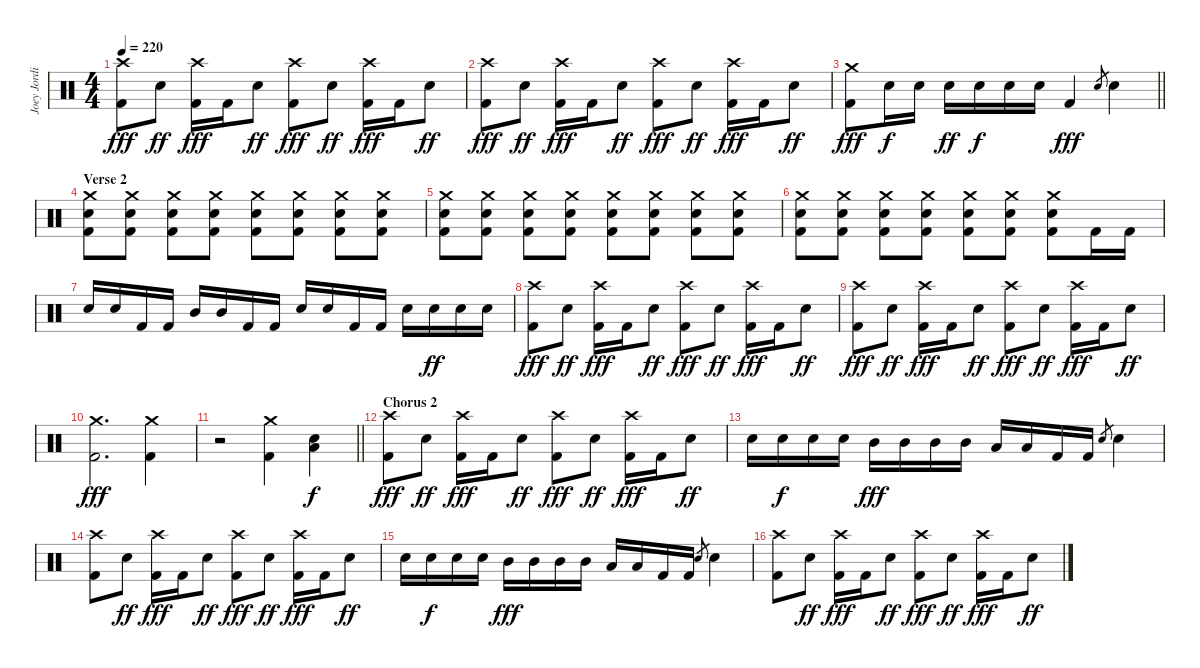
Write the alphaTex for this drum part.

\track ("Joey Jordison" "Joey Jordi") {instrument percussion}
\staff {score}
\articulation defaults
\ts (4 4)
\tempo 220
\clef neutral
\ks c
("Crash high (hit)" "Kick (hit) 2").8{dy fff} "Electric Snare (hit)".8{dy ff} ("Crash high (hit)" "Kick (hit) 2").16{dy fff} "Kick (hit) 2".16 "Electric Snare (hit)".8{dy ff} ("Crash high (hit)" "Kick (hit) 2").8{dy fff} "Electric Snare (hit)".8{dy ff} ("Crash high (hit)" "Kick (hit) 2").16{dy fff} "Kick (hit) 2".16 "Electric Snare (hit)".8{dy ff} |
("Crash high (hit)" "Kick (hit) 2").8{dy fff} "Electric Snare (hit)".8{dy ff} ("Crash high (hit)" "Kick (hit) 2").16{dy fff} "Kick (hit) 2".16 "Electric Snare (hit)".8{dy ff} ("Crash high (hit)" "Kick (hit) 2").8{dy fff} "Electric Snare (hit)".8{dy ff} ("Crash high (hit)" "Kick (hit) 2").16{dy fff} "Kick (hit) 2".16 "Electric Snare (hit)".8{dy ff} |
\barLineRight lightlight
("Crash medium (hit)" "Kick (hit) 2").8{dy fff} "Electric Snare (hit)".16{dy f} "Electric Snare (hit)".16 "Electric Snare (hit)".16{dy ff} "Electric Snare (hit)".16{dy f} "Electric Snare (hit)".16 "Electric Snare (hit)".16 "Kick (hit) 2".4{dy fff} "Electric Snare (hit)".8{gr} "Electric Snare (hit)".4 |
\section ("" "Verse 2")
("Crash medium (hit)" "Electric Snare (hit)" "Kick (hit) 2").8 ("Crash medium (hit)" "Electric Snare (hit)" "Kick (hit) 2").8 ("Crash medium (hit)" "Electric Snare (hit)" "Kick (hit) 2").8 ("Crash medium (hit)" "Electric Snare (hit)" "Kick (hit) 2").8 ("Crash medium (hit)" "Electric Snare (hit)" "Kick (hit) 2").8 ("Crash medium (hit)" "Electric Snare (hit)" "Kick (hit) 2").8 ("Crash medium (hit)" "Electric Snare (hit)" "Kick (hit) 2").8 ("Crash medium (hit)" "Electric Snare (hit)" "Kick (hit) 2").8 |
("Crash medium (hit)" "Electric Snare (hit)" "Kick (hit) 2").8 ("Crash medium (hit)" "Electric Snare (hit)" "Kick (hit) 2").8 ("Crash medium (hit)" "Electric Snare (hit)" "Kick (hit) 2").8 ("Crash medium (hit)" "Electric Snare (hit)" "Kick (hit) 2").8 ("Crash medium (hit)" "Electric Snare (hit)" "Kick (hit) 2").8 ("Crash medium (hit)" "Electric Snare (hit)" "Kick (hit) 2").8 ("Crash medium (hit)" "Electric Snare (hit)" "Kick (hit) 2").8 ("Crash medium (hit)" "Electric Snare (hit)" "Kick (hit) 2").8 |
("Crash medium (hit)" "Electric Snare (hit)" "Kick (hit) 2").8 ("Crash medium (hit)" "Electric Snare (hit)" "Kick (hit) 2").8 ("Crash medium (hit)" "Electric Snare (hit)" "Kick (hit) 2").8 ("Crash medium (hit)" "Electric Snare (hit)" "Kick (hit) 2").8 ("Crash medium (hit)" "Electric Snare (hit)" "Kick (hit) 2").8 ("Crash medium (hit)" "Electric Snare (hit)" "Kick (hit) 2").8 ("Crash medium (hit)" "Electric Snare (hit)" "Kick (hit) 2").8 "Kick (hit) 2".16 "Kick (hit) 2".16 |
"Electric Snare (hit)".16 "Electric Snare (hit)".16 "Kick (hit) 2".16 "Kick (hit) 2".16 "Mid Tom (hit)".16 "Mid Tom (hit)".16 "Kick (hit) 2".16 "Kick (hit) 2".16 "Electric Snare (hit)".16 "Electric Snare (hit)".16 "Kick (hit) 2".16 "Kick (hit) 2".16 "Electric Snare (hit)".16 "Electric Snare (hit)".16{dy ff} "Electric Snare (hit)".16 "Electric Snare (hit)".16 |
("Crash high (hit)" "Kick (hit) 2").8{dy fff} "Electric Snare (hit)".8{dy ff} ("Crash high (hit)" "Kick (hit) 2").16{dy fff} "Kick (hit) 2".16 "Electric Snare (hit)".8{dy ff} ("Crash high (hit)" "Kick (hit) 2").8{dy fff} "Electric Snare (hit)".8{dy ff} ("Crash high (hit)" "Kick (hit) 2").16{dy fff} "Kick (hit) 2".16 "Electric Snare (hit)".8{dy ff} |
("Crash high (hit)" "Kick (hit) 2").8{dy fff} "Electric Snare (hit)".8{dy ff} ("Crash high (hit)" "Kick (hit) 2").16{dy fff} "Kick (hit) 2".16 "Electric Snare (hit)".8{dy ff} ("Crash high (hit)" "Kick (hit) 2").8{dy fff} "Electric Snare (hit)".8{dy ff} ("Crash high (hit)" "Kick (hit) 2").16{dy fff} "Kick (hit) 2".16 "Electric Snare (hit)".8{dy ff} |
("Crash medium (hit)" "Kick (hit) 2").2{d dy fff} ("Crash medium (hit)" "Kick (hit) 2").4 |
\barLineRight lightlight
r.2 ("Crash medium (hit)" "Kick (hit) 2").4 ("Electric Snare (hit)" "Low Floor Tom (hit)").4{dy f} |
\section ("" "Chorus 2")
("Crash high (hit)" "Kick (hit) 2").8{dy fff} "Electric Snare (hit)".8{dy ff} ("Crash high (hit)" "Kick (hit) 2").16{dy fff} "Kick (hit) 2".16 "Electric Snare (hit)".8{dy ff} ("Crash high (hit)" "Kick (hit) 2").8{dy fff} "Electric Snare (hit)".8{dy ff} ("Crash high (hit)" "Kick (hit) 2").16{dy fff} "Kick (hit) 2".16 "Electric Snare (hit)".8{dy ff} |
"Electric Snare (hit)".16 "Electric Snare (hit)".16{dy f} "Electric Snare (hit)".16 "Electric Snare (hit)".16 "Mid Tom (hit)".16{dy fff} "Mid Tom (hit)".16 "Mid Tom (hit)".16 "Mid Tom (hit)".16 "Low Tom (hit)".16 "Low Tom (hit)".16 "Kick (hit) 2".16 "Kick (hit) 2".16 "Electric Snare (hit)".8{gr} "Electric Snare (hit)".4 |
("Crash high (hit)" "Kick (hit) 2").8 "Electric Snare (hit)".8{dy ff} ("Crash high (hit)" "Kick (hit) 2").16{dy fff} "Kick (hit) 2".16 "Electric Snare (hit)".8{dy ff} ("Crash high (hit)" "Kick (hit) 2").8{dy fff} "Electric Snare (hit)".8{dy ff} ("Crash high (hit)" "Kick (hit) 2").16{dy fff} "Kick (hit) 2".16 "Electric Snare (hit)".8{dy ff} |
"Electric Snare (hit)".16 "Electric Snare (hit)".16{dy f} "Electric Snare (hit)".16 "Electric Snare (hit)".16 "Mid Tom (hit)".16{dy fff} "Mid Tom (hit)".16 "Mid Tom (hit)".16 "Mid Tom (hit)".16 "Low Tom (hit)".16 "Low Tom (hit)".16 "Kick (hit) 2".16 "Kick (hit) 2".16 "Electric Snare (hit)".8{gr} "Electric Snare (hit)".4 |
("Crash high (hit)" "Kick (hit) 2").8 "Electric Snare (hit)".8{dy ff} ("Crash high (hit)" "Kick (hit) 2").16{dy fff} "Kick (hit) 2".16 "Electric Snare (hit)".8{dy ff} ("Crash high (hit)" "Kick (hit) 2").8{dy fff} "Electric Snare (hit)".8{dy ff} ("Crash high (hit)" "Kick (hit) 2").16{dy fff} "Kick (hit) 2".16 "Electric Snare (hit)".8{dy ff}
